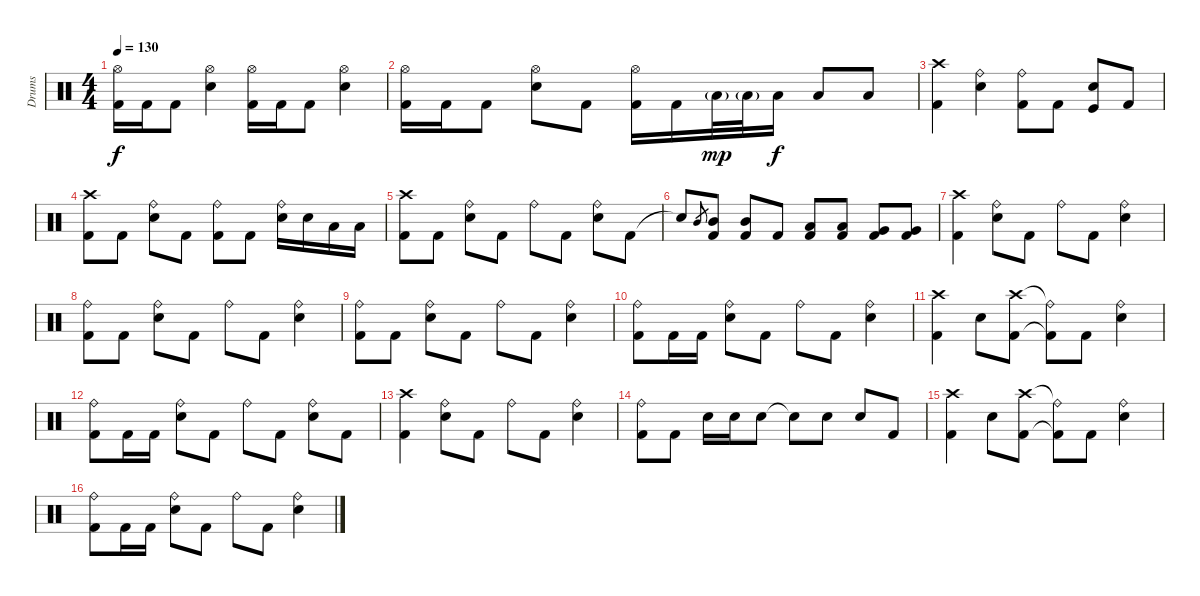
\track ("Drums" "Drums") {instrument percussion}
\staff {score}
\articulation defaults
\ts (4 4)
\tempo 130
\clef neutral
\ks c
("Hi-Hat (open)" "Kick (hit) 2").16{dy f} "Kick (hit) 2".16 "Kick (hit) 2".8 ("Hi-Hat (open)" "Electric Snare (hit)").4 ("Hi-Hat (open)" "Kick (hit) 2").16 "Kick (hit) 2".16 "Kick (hit) 2".8 ("Hi-Hat (open)" "Electric Snare (hit)").4 |
("Hi-Hat (open)" "Kick (hit) 2").16 "Kick (hit) 2".16 "Kick (hit) 2".8 ("Hi-Hat (open)" "Electric Snare (hit)").8 "Kick (hit) 2".8 ("Hi-Hat (open)" "Kick (hit) 2").16 "Kick (hit) 2".16 "Low Tom (hit)"{g}.32{dy mp} "Low Tom (hit)"{g}.32 "Low Tom (hit)".16{dy f} "Low Tom (hit)".8 "Low Tom (hit)".8 |
("Crash high (hit)" "Kick (hit) 2").4 ("Ride (bell)" "Electric Snare (hit)").4 ("Ride (bell)" "Kick (hit) 2").8 "Kick (hit) 2".8 ("Kick (hit)" "Electric Snare (hit)").8 "Kick (hit) 2".8 |
("Crash high (hit)" "Kick (hit) 2").8 "Kick (hit) 2".8 ("Ride (bell)" "Electric Snare (hit)").8 "Kick (hit) 2".8 ("Ride (bell)" "Kick (hit) 2").8 "Kick (hit) 2".8 ("Ride (bell)" "Electric Snare (hit)").16 "Electric Snare (hit)".16 "Low Tom (hit)".16 "Low Tom (hit)".16 |
("Crash high (hit)" "Kick (hit) 2").8 "Kick (hit) 2".8 ("Ride (bell)" "Electric Snare (hit)").8 "Kick (hit) 2".8 "Ride (bell)".8 "Kick (hit) 2".8 ("Ride (bell)" "Electric Snare (hit)").8 "Kick (hit) 2".8 |
"Snare (hit)"{t}.8 "Mid Tom (hit)".8{gr} ("Mid Tom (hit)" "Kick (hit) 2").8 ("Mid Tom (hit)" "Kick (hit) 2").8 "Kick (hit) 2".8 ("Low Tom (hit)" "Kick (hit) 2").8 ("Low Tom (hit)" "Kick (hit) 2").8 ("Very Low Tom (hit)" "Kick (hit) 2").8 ("Very Low Tom (hit)" "Kick (hit) 2").8 |
("Crash high (hit)" "Kick (hit) 2").4 ("Ride (bell)" "Electric Snare (hit)").8 "Kick (hit) 2".8 "Ride (bell)".8 "Kick (hit) 2".8 ("Ride (bell)" "Electric Snare (hit)").4 |
("Ride (bell)" "Kick (hit) 2").8 "Kick (hit) 2".8 ("Ride (bell)" "Electric Snare (hit)").8 "Kick (hit) 2".8 "Ride (bell)".8 "Kick (hit) 2".8 ("Ride (bell)" "Electric Snare (hit)").4 |
("Ride (bell)" "Kick (hit) 2").8 "Kick (hit) 2".8 ("Ride (bell)" "Electric Snare (hit)").8 "Kick (hit) 2".8 "Ride (bell)".8 "Kick (hit) 2".8 ("Ride (bell)" "Electric Snare (hit)").4 |
("Ride (bell)" "Kick (hit) 2").8 "Kick (hit) 2".16 "Kick (hit) 2".16 ("Ride (bell)" "Electric Snare (hit)").8 "Kick (hit) 2".8 "Ride (bell)".8 "Kick (hit) 2".8 ("Ride (bell)" "Electric Snare (hit)").4 |
("Crash high (hit)" "Kick (hit) 2").4 "Electric Snare (hit)".8 ("Crash high (hit)" "Kick (hit) 2").8 ("Ride (bell)"{t} "Kick (hit) 2"{t}).8 "Kick (hit) 2".8 ("Ride (bell)" "Electric Snare (hit)").4 |
("Ride (bell)" "Kick (hit) 2").8 "Kick (hit) 2".16 "Kick (hit) 2".16 ("Ride (bell)" "Electric Snare (hit)").8 "Kick (hit) 2".8 "Ride (bell)".8 "Kick (hit) 2".8 ("Ride (bell)" "Electric Snare (hit)").8 "Kick (hit) 2".8 |
("Crash high (hit)" "Kick (hit) 2").4 ("Ride (bell)" "Electric Snare (hit)").8 "Kick (hit) 2".8 "Ride (bell)".8 "Kick (hit) 2".8 ("Ride (bell)" "Electric Snare (hit)").4 |
("Ride (bell)" "Kick (hit) 2").8 "Kick (hit) 2".8 "Electric Snare (hit)".16 "Electric Snare (hit)".16 "Electric Snare (hit)".8 "Snare (hit)"{t}.8 "Electric Snare (hit)".8 "Electric Snare (hit)".8 "Kick (hit) 2".8 |
("Crash high (hit)" "Kick (hit) 2").4 "Electric Snare (hit)".8 ("Crash high (hit)" "Kick (hit) 2").8 ("Ride (bell)"{t} "Kick (hit) 2"{t}).8 "Kick (hit) 2".8 ("Ride (bell)" "Electric Snare (hit)").4 |
("Ride (bell)" "Kick (hit) 2").8 "Kick (hit) 2".16 "Kick (hit) 2".16 ("Ride (bell)" "Electric Snare (hit)").8 "Kick (hit) 2".8 "Ride (bell)".8 "Kick (hit) 2".8 ("Ride (bell)" "Electric Snare (hit)").4
